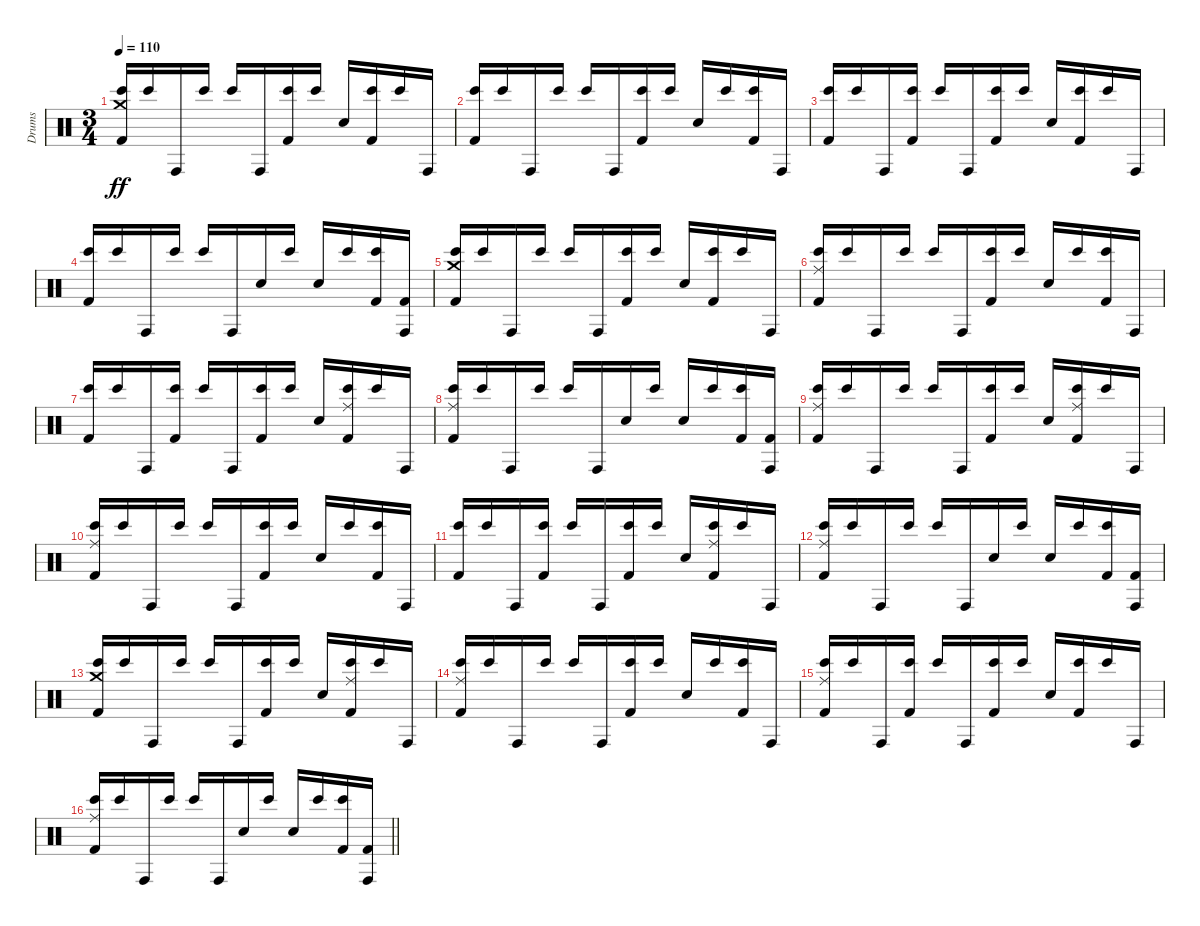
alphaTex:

\track ("Drums" "Drums") {instrument percussion}
\staff {score}
\articulation defaults
\ts (3 4)
\section ("" "")
\tempo 110
\clef neutral
\ks c
("Crash medium (hit)" "Bongo High (hit)" "Kick (hit) 2").16{dy ff} "Bongo High (hit)".16 "Conga high (hit)".16 "Bongo High (hit)".16 "Bongo High (hit)".16 "Conga high (hit)".16 ("Bongo High (hit)" "Kick (hit) 2").16 "Bongo High (hit)".16 "Snare (hit) 2".16 ("Bongo High (hit)" "Kick (hit) 2").16 "Bongo High (hit)".16 "Conga high (hit)".16 |
("Bongo High (hit)" "Kick (hit) 2").16 "Bongo High (hit)".16 "Conga high (hit)".16 "Bongo High (hit)".16 "Bongo High (hit)".16 "Conga high (hit)".16 ("Bongo High (hit)" "Kick (hit) 2").16 "Bongo High (hit)".16 "Snare (hit) 2".16 "Bongo High (hit)".16 ("Bongo High (hit)" "Kick (hit) 2").16 "Conga high (hit)".16 |
("Bongo High (hit)" "Kick (hit) 2").16 "Bongo High (hit)".16 "Conga high (hit)".16 ("Bongo High (hit)" "Kick (hit) 2").16 "Bongo High (hit)".16 "Conga high (hit)".16 ("Bongo High (hit)" "Kick (hit) 2").16 "Bongo High (hit)".16 "Snare (hit) 2".16 ("Bongo High (hit)" "Kick (hit) 2").16 "Bongo High (hit)".16 "Conga high (hit)".16 |
("Bongo High (hit)" "Kick (hit) 2").16 "Bongo High (hit)".16 "Conga high (hit)".16 "Bongo High (hit)".16 "Bongo High (hit)".16 "Conga high (hit)".16 "Snare (hit) 2".16 "Bongo High (hit)".16 "Snare (hit) 2".16 "Bongo High (hit)".16 ("Bongo High (hit)" "Kick (hit) 2").16 ("Conga high (hit)" "Kick (hit) 2").16 |
("Crash medium (hit)" "Bongo High (hit)" "Kick (hit) 2").16 "Bongo High (hit)".16 "Conga high (hit)".16 "Bongo High (hit)".16 "Bongo High (hit)".16 "Conga high (hit)".16 ("Bongo High (hit)" "Kick (hit) 2").16 "Bongo High (hit)".16 "Snare (hit) 2".16 ("Bongo High (hit)" "Kick (hit) 2").16 "Bongo High (hit)".16 "Conga high (hit)".16 |
("Ride (middle)" "Bongo High (hit)" "Kick (hit) 2").16 "Bongo High (hit)".16 "Conga high (hit)".16 "Bongo High (hit)".16 "Bongo High (hit)".16 "Conga high (hit)".16 ("Bongo High (hit)" "Kick (hit) 2").16 "Bongo High (hit)".16 "Snare (hit) 2".16 "Bongo High (hit)".16 ("Bongo High (hit)" "Kick (hit) 2").16 "Conga high (hit)".16 |
("Bongo High (hit)" "Kick (hit) 2").16 "Bongo High (hit)".16 "Conga high (hit)".16 ("Bongo High (hit)" "Kick (hit) 2").16 "Bongo High (hit)".16 "Conga high (hit)".16 ("Bongo High (hit)" "Kick (hit) 2").16 "Bongo High (hit)".16 "Snare (hit) 2".16 ("Ride (middle)" "Bongo High (hit)" "Kick (hit) 2").16 "Bongo High (hit)".16 "Conga high (hit)".16 |
("Ride (middle)" "Bongo High (hit)" "Kick (hit) 2").16 "Bongo High (hit)".16 "Conga high (hit)".16 "Bongo High (hit)".16 "Bongo High (hit)".16 "Conga high (hit)".16 "Snare (hit) 2".16 "Bongo High (hit)".16 "Snare (hit) 2".16 "Bongo High (hit)".16 ("Bongo High (hit)" "Kick (hit) 2").16 ("Conga high (hit)" "Kick (hit) 2").16 |
("Ride (middle)" "Bongo High (hit)" "Kick (hit) 2").16 "Bongo High (hit)".16 "Conga high (hit)".16 "Bongo High (hit)".16 "Bongo High (hit)".16 "Conga high (hit)".16 ("Bongo High (hit)" "Kick (hit) 2").16 "Bongo High (hit)".16 "Snare (hit) 2".16 ("Ride (middle)" "Bongo High (hit)" "Kick (hit) 2").16 "Bongo High (hit)".16 "Conga high (hit)".16 |
("Ride (middle)" "Bongo High (hit)" "Kick (hit) 2").16 "Bongo High (hit)".16 "Conga high (hit)".16 "Bongo High (hit)".16 "Bongo High (hit)".16 "Conga high (hit)".16 ("Bongo High (hit)" "Kick (hit) 2").16 "Bongo High (hit)".16 "Snare (hit) 2".16 "Bongo High (hit)".16 ("Bongo High (hit)" "Kick (hit) 2").16 "Conga high (hit)".16 |
("Bongo High (hit)" "Kick (hit) 2").16 "Bongo High (hit)".16 "Conga high (hit)".16 ("Bongo High (hit)" "Kick (hit) 2").16 "Bongo High (hit)".16 "Conga high (hit)".16 ("Bongo High (hit)" "Kick (hit) 2").16 "Bongo High (hit)".16 "Snare (hit) 2".16 ("Ride (middle)" "Bongo High (hit)" "Kick (hit) 2").16 "Bongo High (hit)".16 "Conga high (hit)".16 |
("Ride (middle)" "Bongo High (hit)" "Kick (hit) 2").16 "Bongo High (hit)".16 "Conga high (hit)".16 "Bongo High (hit)".16 "Bongo High (hit)".16 "Conga high (hit)".16 "Snare (hit) 2".16 "Bongo High (hit)".16 "Snare (hit) 2".16 "Bongo High (hit)".16 ("Bongo High (hit)" "Kick (hit) 2").16 ("Conga high (hit)" "Kick (hit) 2").16 |
("Crash medium (hit)" "Bongo High (hit)" "Kick (hit) 2").16 "Bongo High (hit)".16 "Conga high (hit)".16 "Bongo High (hit)".16 "Bongo High (hit)".16 "Conga high (hit)".16 ("Bongo High (hit)" "Kick (hit) 2").16 "Bongo High (hit)".16 "Snare (hit) 2".16 ("Ride (middle)" "Bongo High (hit)" "Kick (hit) 2").16 "Bongo High (hit)".16 "Conga high (hit)".16 |
("Ride (middle)" "Bongo High (hit)" "Kick (hit) 2").16 "Bongo High (hit)".16 "Conga high (hit)".16 "Bongo High (hit)".16 "Bongo High (hit)".16 "Conga high (hit)".16 ("Bongo High (hit)" "Kick (hit) 2").16 "Bongo High (hit)".16 "Snare (hit) 2".16 "Bongo High (hit)".16 ("Bongo High (hit)" "Kick (hit) 2").16 "Conga high (hit)".16 |
("Ride (middle)" "Bongo High (hit)" "Kick (hit) 2").16 "Bongo High (hit)".16 "Conga high (hit)".16 ("Bongo High (hit)" "Kick (hit) 2").16 "Bongo High (hit)".16 "Conga high (hit)".16 ("Bongo High (hit)" "Kick (hit) 2").16 "Bongo High (hit)".16 "Snare (hit) 2".16 ("Bongo High (hit)" "Kick (hit) 2").16 "Bongo High (hit)".16 "Conga high (hit)".16 |
\barLineRight lightlight
("Ride (middle)" "Bongo High (hit)" "Kick (hit) 2").16 "Bongo High (hit)".16 "Conga high (hit)".16 "Bongo High (hit)".16 "Bongo High (hit)".16 "Conga high (hit)".16 "Snare (hit) 2".16 "Bongo High (hit)".16 "Snare (hit) 2".16 "Bongo High (hit)".16 ("Bongo High (hit)" "Kick (hit) 2").16 ("Conga high (hit)" "Kick (hit) 2").16
